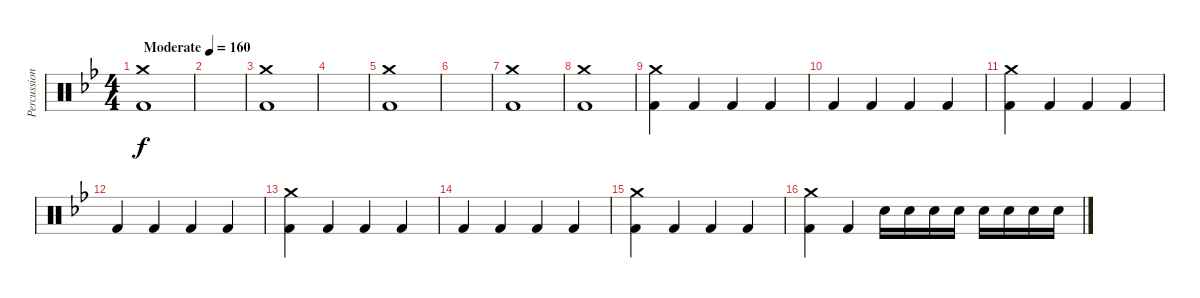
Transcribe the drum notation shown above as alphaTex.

\track ("Percussions" "Percussion") {instrument percussion}
\staff {score}
\articulation defaults
\ts (4 4)
\tempo (160 "Moderate")
\clef neutral
\ks bb
("Crash medium (hit)" "Kick (hit) 2").1{dy f} |
|
("Crash medium (hit)" "Kick (hit) 2").1 |
|
("Crash medium (hit)" "Kick (hit) 2").1 |
|
("Crash medium (hit)" "Kick (hit) 2").1 |
("Crash medium (hit)" "Kick (hit) 2").1 |
("Crash medium (hit)" "Kick (hit) 2").4 "Kick (hit) 2".4 "Kick (hit) 2".4 "Kick (hit) 2".4 |
"Kick (hit) 2".4 "Kick (hit) 2".4 "Kick (hit) 2".4 "Kick (hit) 2".4 |
("Crash medium (hit)" "Kick (hit) 2").4 "Kick (hit) 2".4 "Kick (hit) 2".4 "Kick (hit) 2".4 |
"Kick (hit) 2".4 "Kick (hit) 2".4 "Kick (hit) 2".4 "Kick (hit) 2".4 |
("Crash medium (hit)" "Kick (hit) 2").4 "Kick (hit) 2".4 "Kick (hit) 2".4 "Kick (hit) 2".4 |
"Kick (hit) 2".4 "Kick (hit) 2".4 "Kick (hit) 2".4 "Kick (hit) 2".4 |
("Crash medium (hit)" "Kick (hit) 2").4 "Kick (hit) 2".4 "Kick (hit) 2".4 "Kick (hit) 2".4 |
("Crash medium (hit)" "Kick (hit) 2").4 "Kick (hit) 2".4 "Snare (hit) 2".16 "Snare (hit) 2".16 "Snare (hit) 2".16 "Snare (hit) 2".16 "Snare (hit) 2".16 "Snare (hit) 2".16 "Snare (hit) 2".16 "Snare (hit) 2".16
